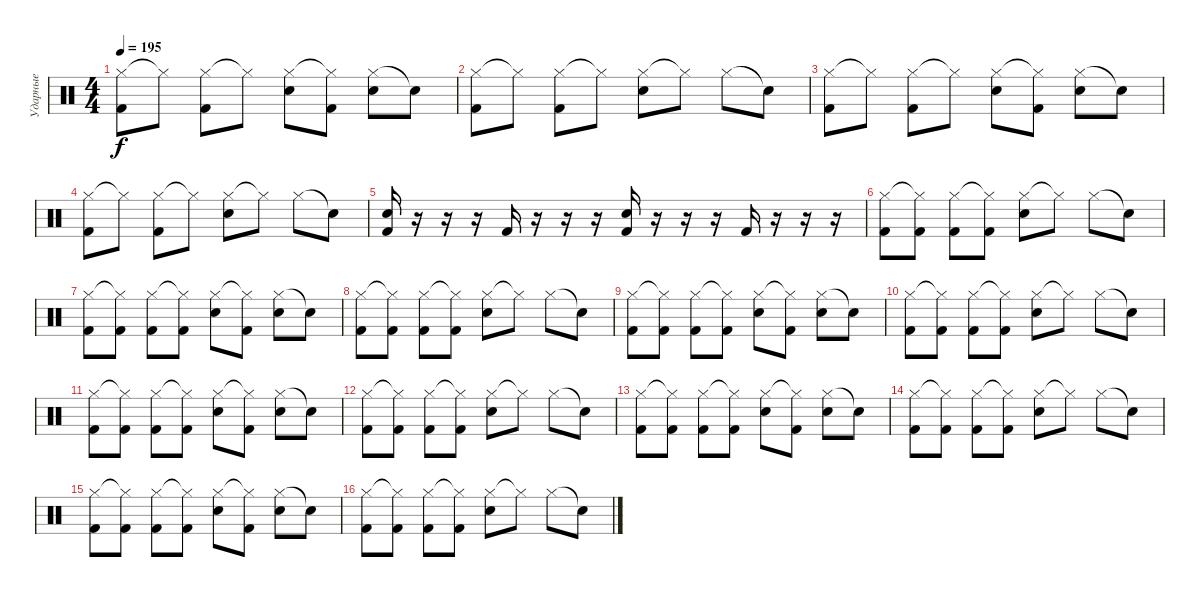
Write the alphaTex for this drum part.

\track ("Ударные" "Ударные") {instrument percussion}
\staff {score}
\articulation defaults
\ts (4 4)
\tempo 195
\clef neutral
\ks c
("Hi-Hat (closed)" "Kick (hit) 2").8{dy f} "Hi-Hat (closed)"{t}.8 ("Hi-Hat (closed)" "Kick (hit) 2").8 "Hi-Hat (closed)"{t}.8 ("Hi-Hat (closed)" "Snare (hit) 2").8 ("Hi-Hat (closed)"{t} "Kick (hit) 2").8 ("Hi-Hat (closed)" "Snare (hit) 2").8 "Snare (hit)"{t}.8 |
("Hi-Hat (closed)" "Kick (hit) 2").8 "Hi-Hat (closed)"{t}.8 ("Hi-Hat (closed)" "Kick (hit) 2").8 "Hi-Hat (closed)"{t}.8 ("Hi-Hat (closed)" "Snare (hit) 2").8 "Hi-Hat (closed)"{t}.8 "Hi-Hat (closed)".8 "Snare (hit)"{t}.8 |
("Hi-Hat (closed)" "Kick (hit) 2").8 "Hi-Hat (closed)"{t}.8 ("Hi-Hat (closed)" "Kick (hit) 2").8 "Hi-Hat (closed)"{t}.8 ("Hi-Hat (closed)" "Snare (hit) 2").8 ("Hi-Hat (closed)"{t} "Kick (hit) 2").8 ("Hi-Hat (closed)" "Snare (hit) 2").8 "Snare (hit)"{t}.8 |
("Hi-Hat (closed)" "Kick (hit) 2").8 "Hi-Hat (closed)"{t}.8 ("Hi-Hat (closed)" "Kick (hit) 2").8 "Hi-Hat (closed)"{t}.8 ("Hi-Hat (closed)" "Snare (hit) 2").8 "Hi-Hat (closed)"{t}.8 "Hi-Hat (closed)".8 "Snare (hit)"{t}.8 |
("Snare (hit) 2" "Kick (hit) 2").16 r.16 r.16 r.16 "Kick (hit) 2".16 r.16 r.16 r.16 ("Snare (hit) 2" "Kick (hit) 2").16 r.16 r.16 r.16 "Kick (hit) 2".16 r.16 r.16 r.16 |
("Hi-Hat (closed)" "Kick (hit) 2").8 ("Hi-Hat (closed)"{t} "Kick (hit) 2").8 ("Hi-Hat (closed)" "Kick (hit) 2").8 ("Hi-Hat (closed)"{t} "Kick (hit) 2").8 ("Hi-Hat (closed)" "Snare (hit) 2").8 "Hi-Hat (closed)"{t}.8 "Hi-Hat (closed)".8 "Snare (hit)"{t}.8 |
("Hi-Hat (closed)" "Kick (hit) 2").8 ("Hi-Hat (closed)"{t} "Kick (hit) 2").8 ("Hi-Hat (closed)" "Kick (hit) 2").8 ("Hi-Hat (closed)"{t} "Kick (hit) 2").8 ("Hi-Hat (closed)" "Snare (hit) 2").8 ("Hi-Hat (closed)"{t} "Kick (hit) 2").8 ("Hi-Hat (closed)" "Snare (hit) 2").8 "Snare (hit)"{t}.8 |
("Hi-Hat (closed)" "Kick (hit) 2").8 ("Hi-Hat (closed)"{t} "Kick (hit) 2").8 ("Hi-Hat (closed)" "Kick (hit) 2").8 ("Hi-Hat (closed)"{t} "Kick (hit) 2").8 ("Hi-Hat (closed)" "Snare (hit) 2").8 "Hi-Hat (closed)"{t}.8 "Hi-Hat (closed)".8 "Snare (hit)"{t}.8 |
("Hi-Hat (closed)" "Kick (hit) 2").8 ("Hi-Hat (closed)"{t} "Kick (hit) 2").8 ("Hi-Hat (closed)" "Kick (hit) 2").8 ("Hi-Hat (closed)"{t} "Kick (hit) 2").8 ("Hi-Hat (closed)" "Snare (hit) 2").8 ("Hi-Hat (closed)"{t} "Kick (hit) 2").8 ("Hi-Hat (closed)" "Snare (hit) 2").8 "Snare (hit)"{t}.8 |
("Hi-Hat (closed)" "Kick (hit) 2").8 ("Hi-Hat (closed)"{t} "Kick (hit) 2").8 ("Hi-Hat (closed)" "Kick (hit) 2").8 ("Hi-Hat (closed)"{t} "Kick (hit) 2").8 ("Hi-Hat (closed)" "Snare (hit) 2").8 "Hi-Hat (closed)"{t}.8 "Hi-Hat (closed)".8 "Snare (hit)"{t}.8 |
("Hi-Hat (closed)" "Kick (hit) 2").8 ("Hi-Hat (closed)"{t} "Kick (hit) 2").8 ("Hi-Hat (closed)" "Kick (hit) 2").8 ("Hi-Hat (closed)"{t} "Kick (hit) 2").8 ("Hi-Hat (closed)" "Snare (hit) 2").8 ("Hi-Hat (closed)"{t} "Kick (hit) 2").8 ("Hi-Hat (closed)" "Snare (hit) 2").8 "Snare (hit)"{t}.8 |
("Hi-Hat (closed)" "Kick (hit) 2").8 ("Hi-Hat (closed)"{t} "Kick (hit) 2").8 ("Hi-Hat (closed)" "Kick (hit) 2").8 ("Hi-Hat (closed)"{t} "Kick (hit) 2").8 ("Hi-Hat (closed)" "Snare (hit) 2").8 "Hi-Hat (closed)"{t}.8 "Hi-Hat (closed)".8 "Snare (hit)"{t}.8 |
("Hi-Hat (closed)" "Kick (hit) 2").8 ("Hi-Hat (closed)"{t} "Kick (hit) 2").8 ("Hi-Hat (closed)" "Kick (hit) 2").8 ("Hi-Hat (closed)"{t} "Kick (hit) 2").8 ("Hi-Hat (closed)" "Snare (hit) 2").8 ("Hi-Hat (closed)"{t} "Kick (hit) 2").8 ("Hi-Hat (closed)" "Snare (hit) 2").8 "Snare (hit)"{t}.8 |
("Hi-Hat (closed)" "Kick (hit) 2").8 ("Hi-Hat (closed)"{t} "Kick (hit) 2").8 ("Hi-Hat (closed)" "Kick (hit) 2").8 ("Hi-Hat (closed)"{t} "Kick (hit) 2").8 ("Hi-Hat (closed)" "Snare (hit) 2").8 "Hi-Hat (closed)"{t}.8 "Hi-Hat (closed)".8 "Snare (hit)"{t}.8 |
("Hi-Hat (closed)" "Kick (hit) 2").8 ("Hi-Hat (closed)"{t} "Kick (hit) 2").8 ("Hi-Hat (closed)" "Kick (hit) 2").8 ("Hi-Hat (closed)"{t} "Kick (hit) 2").8 ("Hi-Hat (closed)" "Snare (hit) 2").8 ("Hi-Hat (closed)"{t} "Kick (hit) 2").8 ("Hi-Hat (closed)" "Snare (hit) 2").8 "Snare (hit)"{t}.8 |
("Hi-Hat (closed)" "Kick (hit) 2").8 ("Hi-Hat (closed)"{t} "Kick (hit) 2").8 ("Hi-Hat (closed)" "Kick (hit) 2").8 ("Hi-Hat (closed)"{t} "Kick (hit) 2").8 ("Hi-Hat (closed)" "Snare (hit) 2").8 "Hi-Hat (closed)"{t}.8 "Hi-Hat (closed)".8 "Snare (hit)"{t}.8
